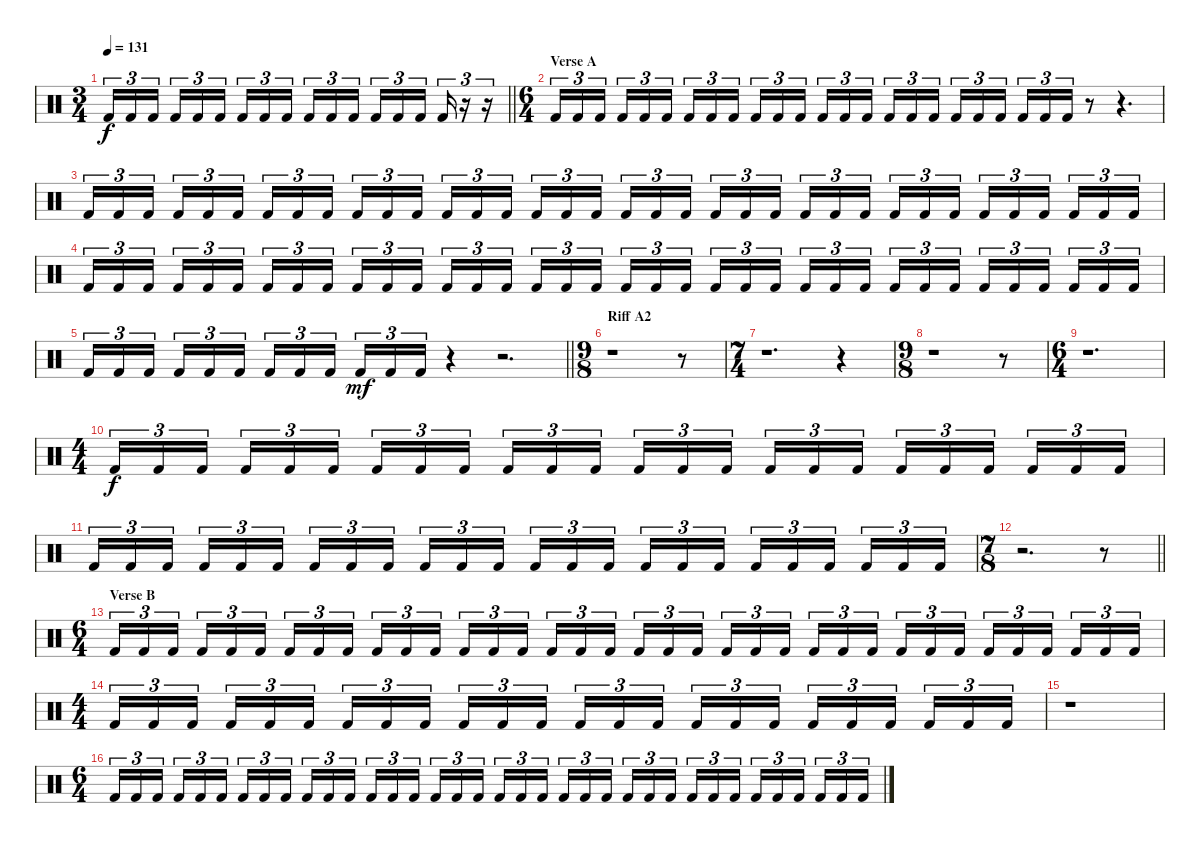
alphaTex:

\track "" {instrument percussion}
\staff {score}
\articulation defaults
\ts (3 4)
\tempo 131
\clef neutral
\barLineRight lightlight
\ks c "Kick (hit) 2".16{tu (3 2) dy f} "Kick (hit) 2".16{tu (3 2)} "Kick (hit) 2".16{tu (3 2) beam splitsecondary} "Kick (hit) 2".16{tu (3 2)} "Kick (hit) 2".16{tu (3 2)} "Kick (hit) 2".16{tu (3 2)} "Kick (hit) 2".16{tu (3 2)} "Kick (hit) 2".16{tu (3 2)} "Kick (hit) 2".16{tu (3 2) beam splitsecondary} "Kick (hit) 2".16{tu (3 2)} "Kick (hit) 2".16{tu (3 2)} "Kick (hit) 2".16{tu (3 2)} "Kick (hit) 2".16{tu (3 2)} "Kick (hit) 2".16{tu (3 2)} "Kick (hit) 2".16{tu (3 2) beam splitsecondary} "Kick (hit) 2".16{tu (3 2)}
r.16{tu (3 2)} r.16{tu (3 2)} |
\ts (6 4)
\section ("" "Verse A")
"Kick (hit) 2".16{tu (3 2)} "Kick (hit) 2".16{tu (3 2)} "Kick (hit) 2".16{tu (3 2) beam splitsecondary} "Kick (hit) 2".16{tu (3 2)} "Kick (hit) 2".16{tu (3 2)} "Kick (hit) 2".16{tu (3 2) beam splitsecondary} "Kick (hit) 2".16{tu (3 2)} "Kick (hit) 2".16{tu (3 2)} "Kick (hit) 2".16{tu (3 2) beam splitsecondary} "Kick (hit) 2".16{tu (3 2)} "Kick (hit) 2".16{tu (3 2)} "Kick (hit) 2".16{tu (3 2) beam splitsecondary} "Kick (hit) 2".16{tu (3 2)} "Kick (hit) 2".16{tu (3 2)} "Kick (hit) 2".16{tu (3 2) beam splitsecondary} "Kick (hit) 2".16{tu (3 2)} "Kick (hit) 2".16{tu (3 2)} "Kick (hit) 2".16{tu (3 2)} "Kick (hit) 2".16{tu (3 2)} "Kick (hit) 2".16{tu (3 2)} "Kick (hit) 2".16{tu (3 2) beam splitsecondary} "Kick (hit) 2".16{tu (3 2)} "Kick (hit) 2".16{tu (3 2)} "Kick (hit) 2".16{tu (3 2)} r.8 r.4{d} |
"Kick (hit) 2".16{tu (3 2)} "Kick (hit) 2".16{tu (3 2)} "Kick (hit) 2".16{tu (3 2) beam splitsecondary} "Kick (hit) 2".16{tu (3 2)} "Kick (hit) 2".16{tu (3 2)} "Kick (hit) 2".16{tu (3 2) beam splitsecondary} "Kick (hit) 2".16{tu (3 2)} "Kick (hit) 2".16{tu (3 2)} "Kick (hit) 2".16{tu (3 2) beam splitsecondary} "Kick (hit) 2".16{tu (3 2)} "Kick (hit) 2".16{tu (3 2)} "Kick (hit) 2".16{tu (3 2) beam splitsecondary} "Kick (hit) 2".16{tu (3 2)} "Kick (hit) 2".16{tu (3 2)} "Kick (hit) 2".16{tu (3 2) beam splitsecondary} "Kick (hit) 2".16{tu (3 2)} "Kick (hit) 2".16{tu (3 2)} "Kick (hit) 2".16{tu (3 2)} "Kick (hit) 2".16{tu (3 2)} "Kick (hit) 2".16{tu (3 2)} "Kick (hit) 2".16{tu (3 2) beam splitsecondary} "Kick (hit) 2".16{tu (3 2)} "Kick (hit) 2".16{tu (3 2)} "Kick (hit) 2".16{tu (3 2) beam splitsecondary} "Kick (hit) 2".16{tu (3 2)} "Kick (hit) 2".16{tu (3 2)} "Kick (hit) 2".16{tu (3 2) beam splitsecondary} "Kick (hit) 2".16{tu (3 2)} "Kick (hit) 2".16{tu (3 2)} "Kick (hit) 2".16{tu (3 2) beam splitsecondary} "Kick (hit) 2".16{tu (3 2)} "Kick (hit) 2".16{tu (3 2)} "Kick (hit) 2".16{tu (3 2) beam splitsecondary} "Kick (hit) 2".16{tu (3 2)} "Kick (hit) 2".16{tu (3 2)} "Kick (hit) 2".16{tu (3 2)} |
"Kick (hit) 2".16{tu (3 2)} "Kick (hit) 2".16{tu (3 2)} "Kick (hit) 2".16{tu (3 2) beam splitsecondary} "Kick (hit) 2".16{tu (3 2)} "Kick (hit) 2".16{tu (3 2)} "Kick (hit) 2".16{tu (3 2) beam splitsecondary} "Kick (hit) 2".16{tu (3 2)} "Kick (hit) 2".16{tu (3 2)} "Kick (hit) 2".16{tu (3 2) beam splitsecondary} "Kick (hit) 2".16{tu (3 2)} "Kick (hit) 2".16{tu (3 2)} "Kick (hit) 2".16{tu (3 2) beam splitsecondary} "Kick (hit) 2".16{tu (3 2)} "Kick (hit) 2".16{tu (3 2)} "Kick (hit) 2".16{tu (3 2) beam splitsecondary} "Kick (hit) 2".16{tu (3 2)} "Kick (hit) 2".16{tu (3 2)} "Kick (hit) 2".16{tu (3 2)} "Kick (hit) 2".16{tu (3 2)} "Kick (hit) 2".16{tu (3 2)} "Kick (hit) 2".16{tu (3 2) beam splitsecondary} "Kick (hit) 2".16{tu (3 2)} "Kick (hit) 2".16{tu (3 2)} "Kick (hit) 2".16{tu (3 2) beam splitsecondary} "Kick (hit) 2".16{tu (3 2)} "Kick (hit) 2".16{tu (3 2)} "Kick (hit) 2".16{tu (3 2) beam splitsecondary} "Kick (hit) 2".16{tu (3 2)} "Kick (hit) 2".16{tu (3 2)} "Kick (hit) 2".16{tu (3 2) beam splitsecondary} "Kick (hit) 2".16{tu (3 2)} "Kick (hit) 2".16{tu (3 2)} "Kick (hit) 2".16{tu (3 2) beam splitsecondary} "Kick (hit) 2".16{tu (3 2)} "Kick (hit) 2".16{tu (3 2)} "Kick (hit) 2".16{tu (3 2)} |
\barLineRight lightlight "Kick (hit) 2".16{tu (3 2)} "Kick (hit) 2".16{tu (3 2)} "Kick (hit) 2".16{tu (3 2) beam splitsecondary} "Kick (hit) 2".16{tu (3 2)} "Kick (hit) 2".16{tu (3 2)} "Kick (hit) 2".16{tu (3 2) beam splitsecondary} "Kick (hit) 2".16{tu (3 2)} "Kick (hit) 2".16{tu (3 2)} "Kick (hit) 2".16{tu (3 2) beam splitsecondary} "Kick (hit) 2".16{tu (3 2) dy mf} "Kick (hit) 2".16{tu (3 2)} "Kick (hit) 2".16{tu (3 2)}
r.4 r.2{d} |
\ts (9 8)
\section ("" "Riff A2")
r.1 r.8 |
\ts (7 4)
r.1{d} r.4 |
\ts (9 8)
r.1 r.8 |
\ts (6 4)
r.1{d} |
\ts (4 4)
"Kick (hit) 2".16{tu (3 2) dy f} "Kick (hit) 2".16{tu (3 2)} "Kick (hit) 2".16{tu (3 2) beam splitsecondary} "Kick (hit) 2".16{tu (3 2)} "Kick (hit) 2".16{tu (3 2)} "Kick (hit) 2".16{tu (3 2)} "Kick (hit) 2".16{tu (3 2)} "Kick (hit) 2".16{tu (3 2)} "Kick (hit) 2".16{tu (3 2) beam splitsecondary} "Kick (hit) 2".16{tu (3 2)} "Kick (hit) 2".16{tu (3 2)} "Kick (hit) 2".16{tu (3 2)} "Kick (hit) 2".16{tu (3 2)} "Kick (hit) 2".16{tu (3 2)} "Kick (hit) 2".16{tu (3 2) beam splitsecondary} "Kick (hit) 2".16{tu (3 2)} "Kick (hit) 2".16{tu (3 2)} "Kick (hit) 2".16{tu (3 2)} "Kick (hit) 2".16{tu (3 2)} "Kick (hit) 2".16{tu (3 2)} "Kick (hit) 2".16{tu (3 2) beam splitsecondary} "Kick (hit) 2".16{tu (3 2)} "Kick (hit) 2".16{tu (3 2)} "Kick (hit) 2".16{tu (3 2)} |
"Kick (hit) 2".16{tu (3 2)} "Kick (hit) 2".16{tu (3 2)} "Kick (hit) 2".16{tu (3 2) beam splitsecondary} "Kick (hit) 2".16{tu (3 2)} "Kick (hit) 2".16{tu (3 2)} "Kick (hit) 2".16{tu (3 2)} "Kick (hit) 2".16{tu (3 2)} "Kick (hit) 2".16{tu (3 2)} "Kick (hit) 2".16{tu (3 2) beam splitsecondary} "Kick (hit) 2".16{tu (3 2)} "Kick (hit) 2".16{tu (3 2)} "Kick (hit) 2".16{tu (3 2)} "Kick (hit) 2".16{tu (3 2)} "Kick (hit) 2".16{tu (3 2)} "Kick (hit) 2".16{tu (3 2) beam splitsecondary} "Kick (hit) 2".16{tu (3 2)} "Kick (hit) 2".16{tu (3 2)} "Kick (hit) 2".16{tu (3 2)} "Kick (hit) 2".16{tu (3 2)} "Kick (hit) 2".16{tu (3 2)} "Kick (hit) 2".16{tu (3 2) beam splitsecondary} "Kick (hit) 2".16{tu (3 2)} "Kick (hit) 2".16{tu (3 2)} "Kick (hit) 2".16{tu (3 2)} |
\ts (7 8)
\barLineRight lightlight
r.2{d} r.8 |
\ts (6 4)
\section ("" "Verse B")
"Kick (hit) 2".16{tu (3 2)} "Kick (hit) 2".16{tu (3 2)} "Kick (hit) 2".16{tu (3 2) beam splitsecondary} "Kick (hit) 2".16{tu (3 2)} "Kick (hit) 2".16{tu (3 2)} "Kick (hit) 2".16{tu (3 2) beam splitsecondary} "Kick (hit) 2".16{tu (3 2)} "Kick (hit) 2".16{tu (3 2)} "Kick (hit) 2".16{tu (3 2) beam splitsecondary} "Kick (hit) 2".16{tu (3 2)} "Kick (hit) 2".16{tu (3 2)} "Kick (hit) 2".16{tu (3 2) beam splitsecondary} "Kick (hit) 2".16{tu (3 2)} "Kick (hit) 2".16{tu (3 2)} "Kick (hit) 2".16{tu (3 2) beam splitsecondary} "Kick (hit) 2".16{tu (3 2)} "Kick (hit) 2".16{tu (3 2)} "Kick (hit) 2".16{tu (3 2)} "Kick (hit) 2".16{tu (3 2)} "Kick (hit) 2".16{tu (3 2)} "Kick (hit) 2".16{tu (3 2) beam splitsecondary} "Kick (hit) 2".16{tu (3 2)} "Kick (hit) 2".16{tu (3 2)} "Kick (hit) 2".16{tu (3 2) beam splitsecondary} "Kick (hit) 2".16{tu (3 2)} "Kick (hit) 2".16{tu (3 2)} "Kick (hit) 2".16{tu (3 2) beam splitsecondary} "Kick (hit) 2".16{tu (3 2)} "Kick (hit) 2".16{tu (3 2)} "Kick (hit) 2".16{tu (3 2) beam splitsecondary} "Kick (hit) 2".16{tu (3 2)} "Kick (hit) 2".16{tu (3 2)} "Kick (hit) 2".16{tu (3 2) beam splitsecondary} "Kick (hit) 2".16{tu (3 2)} "Kick (hit) 2".16{tu (3 2)} "Kick (hit) 2".16{tu (3 2)} |
\ts (4 4)
"Kick (hit) 2".16{tu (3 2)} "Kick (hit) 2".16{tu (3 2)} "Kick (hit) 2".16{tu (3 2) beam splitsecondary} "Kick (hit) 2".16{tu (3 2)} "Kick (hit) 2".16{tu (3 2)} "Kick (hit) 2".16{tu (3 2)} "Kick (hit) 2".16{tu (3 2)} "Kick (hit) 2".16{tu (3 2)} "Kick (hit) 2".16{tu (3 2) beam splitsecondary} "Kick (hit) 2".16{tu (3 2)} "Kick (hit) 2".16{tu (3 2)} "Kick (hit) 2".16{tu (3 2)} "Kick (hit) 2".16{tu (3 2)} "Kick (hit) 2".16{tu (3 2)} "Kick (hit) 2".16{tu (3 2) beam splitsecondary} "Kick (hit) 2".16{tu (3 2)} "Kick (hit) 2".16{tu (3 2)} "Kick (hit) 2".16{tu (3 2)} "Kick (hit) 2".16{tu (3 2)} "Kick (hit) 2".16{tu (3 2)} "Kick (hit) 2".16{tu (3 2) beam splitsecondary} "Kick (hit) 2".16{tu (3 2)} "Kick (hit) 2".16{tu (3 2)} "Kick (hit) 2".16{tu (3 2)} |
r.1 |
\ts (6 4)
"Kick (hit) 2".16{tu (3 2)} "Kick (hit) 2".16{tu (3 2)} "Kick (hit) 2".16{tu (3 2) beam splitsecondary} "Kick (hit) 2".16{tu (3 2)} "Kick (hit) 2".16{tu (3 2)} "Kick (hit) 2".16{tu (3 2) beam splitsecondary} "Kick (hit) 2".16{tu (3 2)} "Kick (hit) 2".16{tu (3 2)} "Kick (hit) 2".16{tu (3 2) beam splitsecondary} "Kick (hit) 2".16{tu (3 2)} "Kick (hit) 2".16{tu (3 2)} "Kick (hit) 2".16{tu (3 2) beam splitsecondary} "Kick (hit) 2".16{tu (3 2)} "Kick (hit) 2".16{tu (3 2)} "Kick (hit) 2".16{tu (3 2) beam splitsecondary} "Kick (hit) 2".16{tu (3 2)} "Kick (hit) 2".16{tu (3 2)} "Kick (hit) 2".16{tu (3 2)} "Kick (hit) 2".16{tu (3 2)} "Kick (hit) 2".16{tu (3 2)} "Kick (hit) 2".16{tu (3 2) beam splitsecondary} "Kick (hit) 2".16{tu (3 2)} "Kick (hit) 2".16{tu (3 2)} "Kick (hit) 2".16{tu (3 2) beam splitsecondary} "Kick (hit) 2".16{tu (3 2)} "Kick (hit) 2".16{tu (3 2)} "Kick (hit) 2".16{tu (3 2) beam splitsecondary} "Kick (hit) 2".16{tu (3 2)} "Kick (hit) 2".16{tu (3 2)} "Kick (hit) 2".16{tu (3 2) beam splitsecondary} "Kick (hit) 2".16{tu (3 2)} "Kick (hit) 2".16{tu (3 2)} "Kick (hit) 2".16{tu (3 2) beam splitsecondary} "Kick (hit) 2".16{tu (3 2)} "Kick (hit) 2".16{tu (3 2)} "Kick (hit) 2".16{tu (3 2)}
